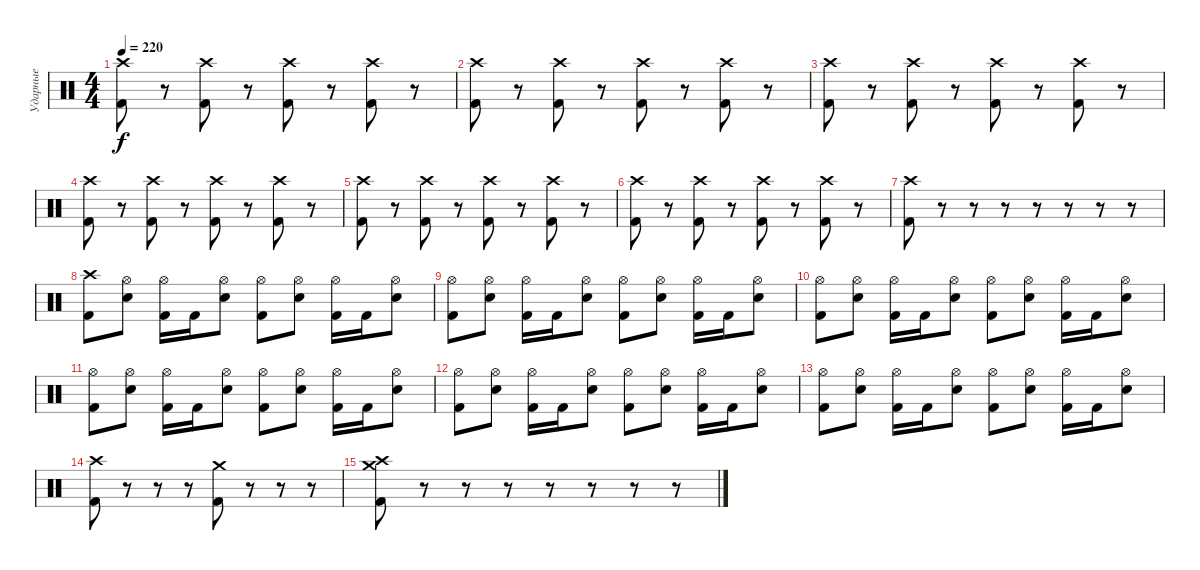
\track ("Ударные" "Ударные") {instrument percussion}
\staff {score}
\articulation defaults
\ts (4 4)
\tempo 220
\clef neutral
\ks c
("Crash high (hit)" "Kick (hit) 2").8{dy f} r.8 ("Crash high (hit)" "Kick (hit) 2").8 r.8 ("Crash high (hit)" "Kick (hit) 2").8 r.8 ("Crash high (hit)" "Kick (hit) 2").8 r.8 |
("Crash high (hit)" "Kick (hit) 2").8 r.8 ("Crash high (hit)" "Kick (hit) 2").8 r.8 ("Crash high (hit)" "Kick (hit) 2").8 r.8 ("Crash high (hit)" "Kick (hit) 2").8 r.8 |
("Crash high (hit)" "Kick (hit) 2").8 r.8 ("Crash high (hit)" "Kick (hit) 2").8 r.8 ("Crash high (hit)" "Kick (hit) 2").8 r.8 ("Crash high (hit)" "Kick (hit) 2").8 r.8 |
("Crash high (hit)" "Kick (hit) 2").8 r.8 ("Crash high (hit)" "Kick (hit) 2").8 r.8 ("Crash high (hit)" "Kick (hit) 2").8 r.8 ("Crash high (hit)" "Kick (hit) 2").8 r.8 |
("Crash high (hit)" "Kick (hit) 2").8 r.8 ("Crash high (hit)" "Kick (hit) 2").8 r.8 ("Crash high (hit)" "Kick (hit) 2").8 r.8 ("Crash high (hit)" "Kick (hit) 2").8 r.8 |
("Crash high (hit)" "Kick (hit) 2").8 r.8 ("Crash high (hit)" "Kick (hit) 2").8 r.8 ("Crash high (hit)" "Kick (hit) 2").8 r.8 ("Crash high (hit)" "Kick (hit) 2").8 r.8 |
("Crash high (hit)" "Kick (hit) 2").8 r.8 r.8 r.8 r.8 r.8 r.8 r.8 |
("Crash high (hit)" "Kick (hit) 2").8 ("Hi-Hat (open)" "Electric Snare (hit)").8 ("Hi-Hat (open)" "Kick (hit) 2").16 "Kick (hit) 2".16 ("Hi-Hat (open)" "Electric Snare (hit)").8 ("Hi-Hat (open)" "Kick (hit) 2").8 ("Hi-Hat (open)" "Electric Snare (hit)").8 ("Hi-Hat (open)" "Kick (hit) 2").16 "Kick (hit) 2".16 ("Hi-Hat (open)" "Electric Snare (hit)").8 |
("Hi-Hat (open)" "Kick (hit) 2").8 ("Hi-Hat (open)" "Electric Snare (hit)").8 ("Hi-Hat (open)" "Kick (hit) 2").16 "Kick (hit) 2".16 ("Hi-Hat (open)" "Electric Snare (hit)").8 ("Hi-Hat (open)" "Kick (hit) 2").8 ("Hi-Hat (open)" "Electric Snare (hit)").8 ("Hi-Hat (open)" "Kick (hit) 2").16 "Kick (hit) 2".16 ("Hi-Hat (open)" "Electric Snare (hit)").8 |
("Hi-Hat (open)" "Kick (hit) 2").8 ("Hi-Hat (open)" "Electric Snare (hit)").8 ("Hi-Hat (open)" "Kick (hit) 2").16 "Kick (hit) 2".16 ("Hi-Hat (open)" "Electric Snare (hit)").8 ("Hi-Hat (open)" "Kick (hit) 2").8 ("Hi-Hat (open)" "Electric Snare (hit)").8 ("Hi-Hat (open)" "Kick (hit) 2").16 "Kick (hit) 2".16 ("Hi-Hat (open)" "Electric Snare (hit)").8 |
("Hi-Hat (open)" "Kick (hit) 2").8 ("Hi-Hat (open)" "Electric Snare (hit)").8 ("Hi-Hat (open)" "Kick (hit) 2").16 "Kick (hit) 2".16 ("Hi-Hat (open)" "Electric Snare (hit)").8 ("Hi-Hat (open)" "Kick (hit) 2").8 ("Hi-Hat (open)" "Electric Snare (hit)").8 ("Hi-Hat (open)" "Kick (hit) 2").16 "Kick (hit) 2".16 ("Hi-Hat (open)" "Electric Snare (hit)").8 |
("Hi-Hat (open)" "Kick (hit) 2").8 ("Hi-Hat (open)" "Electric Snare (hit)").8 ("Hi-Hat (open)" "Kick (hit) 2").16 "Kick (hit) 2".16 ("Hi-Hat (open)" "Electric Snare (hit)").8 ("Hi-Hat (open)" "Kick (hit) 2").8 ("Hi-Hat (open)" "Electric Snare (hit)").8 ("Hi-Hat (open)" "Kick (hit) 2").16 "Kick (hit) 2".16 ("Hi-Hat (open)" "Electric Snare (hit)").8 |
("Hi-Hat (open)" "Kick (hit) 2").8 ("Hi-Hat (open)" "Electric Snare (hit)").8 ("Hi-Hat (open)" "Kick (hit) 2").16 "Kick (hit) 2".16 ("Hi-Hat (open)" "Electric Snare (hit)").8 ("Hi-Hat (open)" "Kick (hit) 2").8 ("Hi-Hat (open)" "Electric Snare (hit)").8 ("Hi-Hat (open)" "Kick (hit) 2").16 "Kick (hit) 2".16 ("Hi-Hat (open)" "Electric Snare (hit)").8 |
("Crash high (hit)" "Kick (hit) 2").8 r.8 r.8 r.8 ("Crash medium (hit)" "Kick (hit) 2").8 r.8 r.8 r.8 |
("Crash high (hit)" "Crash medium (hit)" "Kick (hit) 2").8 r.8 r.8 r.8 r.8 r.8 r.8 r.8
